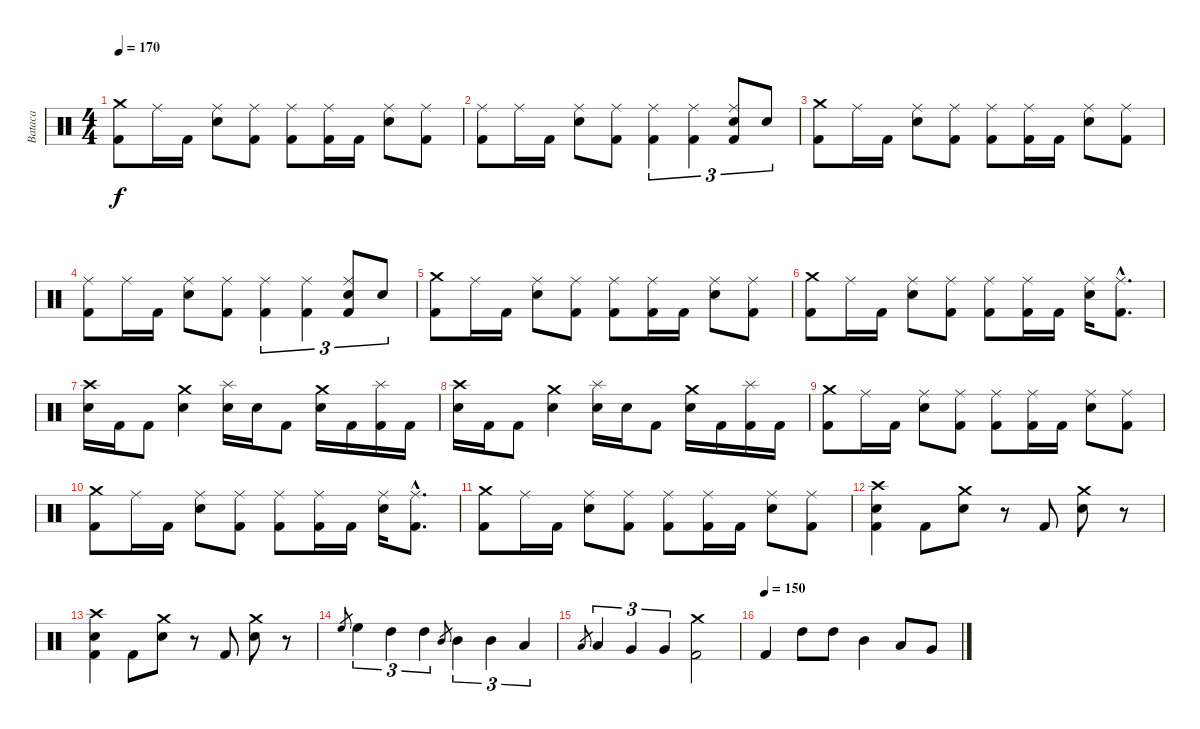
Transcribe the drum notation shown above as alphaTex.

\track ("Bataca" "Bataca") {instrument percussion}
\staff {score}
\articulation defaults
\ts (4 4)
\tempo 170
\clef neutral
\ks c
("Crash medium (hit)" "Kick (hit) 2").8{dy f} "Ride (middle)".16 "Kick (hit) 2".16 ("Ride (middle)" "Electric Snare (hit)").8 ("Ride (middle)" "Kick (hit) 2").8 ("Ride (middle)" "Kick (hit) 2").8 ("Ride (middle)" "Kick (hit) 2").16 "Kick (hit) 2".16 ("Ride (middle)" "Electric Snare (hit)").8 ("Ride (middle)" "Kick (hit) 2").8 |
("Ride (middle)" "Kick (hit) 2").8 "Ride (middle)".16 "Kick (hit) 2".16 ("Ride (middle)" "Electric Snare (hit)").8 ("Ride (middle)" "Kick (hit) 2").8 ("Ride (middle)" "Kick (hit) 2").4{tu (3 2)} ("Ride (middle)" "Kick (hit) 2").4{tu (3 2)} ("Ride (middle)" "Electric Snare (hit)" "Kick (hit) 2").8{tu (3 2)} "Electric Snare (hit)".8{tu (3 2)} |
("Crash medium (hit)" "Kick (hit) 2").8 "Ride (middle)".16 "Kick (hit) 2".16 ("Ride (middle)" "Electric Snare (hit)").8 ("Ride (middle)" "Kick (hit) 2").8 ("Ride (middle)" "Kick (hit) 2").8 ("Ride (middle)" "Kick (hit) 2").16 "Kick (hit) 2".16 ("Ride (middle)" "Electric Snare (hit)").8 ("Ride (middle)" "Kick (hit) 2").8 |
("Ride (middle)" "Kick (hit) 2").8 "Ride (middle)".16 "Kick (hit) 2".16 ("Ride (middle)" "Electric Snare (hit)").8 ("Ride (middle)" "Kick (hit) 2").8 ("Ride (middle)" "Kick (hit) 2").4{tu (3 2)} ("Ride (middle)" "Kick (hit) 2").4{tu (3 2)} ("Ride (middle)" "Electric Snare (hit)" "Kick (hit) 2").8{tu (3 2)} "Electric Snare (hit)".8{tu (3 2)} |
("Crash medium (hit)" "Kick (hit) 2").8 "Ride (middle)".16 "Kick (hit) 2".16 ("Ride (middle)" "Electric Snare (hit)").8 ("Ride (middle)" "Kick (hit) 2").8 ("Ride (middle)" "Kick (hit) 2").8 ("Ride (middle)" "Kick (hit) 2").16 "Kick (hit) 2".16 ("Ride (middle)" "Electric Snare (hit)").8 ("Ride (middle)" "Kick (hit) 2").8 |
("Crash medium (hit)" "Kick (hit) 2").8 "Ride (middle)".16 "Kick (hit) 2".16 ("Ride (middle)" "Electric Snare (hit)").8 ("Ride (middle)" "Kick (hit) 2").8 ("Ride (middle)" "Kick (hit) 2").8 ("Ride (middle)" "Kick (hit) 2").16 "Kick (hit) 2".16 ("Ride (middle)" "Electric Snare (hit)").16 ("Ride (middle)"{hac} "Kick (hit) 2"{hac}).8{d} |
("Crash high (hit)" "Electric Snare (hit)").16 "Kick (hit) 2".16 "Kick (hit) 2".8 ("Crash medium (hit)" "Electric Snare (hit)").4 ("Splash (hit)" "Electric Snare (hit)").16 "Electric Snare (hit)".16 "Kick (hit) 2".8 ("Crash medium (hit)" "Electric Snare (hit)").16 "Kick (hit) 2".16 ("Splash (hit)" "Kick (hit) 2").16 "Kick (hit) 2".16 |
("Crash high (hit)" "Electric Snare (hit)").16 "Kick (hit) 2".16 "Kick (hit) 2".8 ("Crash medium (hit)" "Electric Snare (hit)").4 ("Splash (hit)" "Electric Snare (hit)").16 "Electric Snare (hit)".16 "Kick (hit) 2".8 ("Crash medium (hit)" "Electric Snare (hit)").16 "Kick (hit) 2".16 ("Splash (hit)" "Kick (hit) 2").16 "Kick (hit) 2".16 |
("Crash medium (hit)" "Kick (hit) 2").8 "Ride (middle)".16 "Kick (hit) 2".16 ("Ride (middle)" "Electric Snare (hit)").8 ("Ride (middle)" "Kick (hit) 2").8 ("Ride (middle)" "Kick (hit) 2").8 ("Ride (middle)" "Kick (hit) 2").16 "Kick (hit) 2".16 ("Ride (middle)" "Electric Snare (hit)").8 ("Ride (middle)" "Kick (hit) 2").8 |
("Crash medium (hit)" "Kick (hit) 2").8 "Ride (middle)".16 "Kick (hit) 2".16 ("Ride (middle)" "Electric Snare (hit)").8 ("Ride (middle)" "Kick (hit) 2").8 ("Ride (middle)" "Kick (hit) 2").8 ("Ride (middle)" "Kick (hit) 2").16 "Kick (hit) 2".16 ("Ride (middle)" "Electric Snare (hit)").16 ("Ride (middle)"{hac} "Kick (hit) 2"{hac}).8{d} |
("Crash medium (hit)" "Kick (hit) 2").8 "Ride (middle)".16 "Kick (hit) 2".16 ("Ride (middle)" "Electric Snare (hit)").8 ("Ride (middle)" "Kick (hit) 2").8 ("Ride (middle)" "Kick (hit) 2").8 ("Ride (middle)" "Kick (hit) 2").16 "Kick (hit) 2".16 ("Ride (middle)" "Electric Snare (hit)").8 ("Ride (middle)" "Kick (hit) 2").8 |
("Crash high (hit)" "Electric Snare (hit)" "Kick (hit) 2").4 "Kick (hit) 2".8 ("Crash medium (hit)" "Electric Snare (hit)").8 r.8 "Kick (hit) 2".8 ("Crash medium (hit)" "Electric Snare (hit)").8 r.8 |
("Crash high (hit)" "Electric Snare (hit)" "Kick (hit) 2").4 "Kick (hit) 2".8 ("Crash medium (hit)" "Electric Snare (hit)").8 r.8 "Kick (hit) 2".8 ("Crash medium (hit)" "Electric Snare (hit)").8 r.8 |
"High Floor Tom (hit)".8{gr} "High Floor Tom (hit)".4{tu (3 2)} "High Tom (hit)".4{tu (3 2)} "High Tom (hit)".4{tu (3 2)} "Mid Tom (hit)".8{gr} "Mid Tom (hit)".4{tu (3 2)} "Mid Tom (hit)".4{tu (3 2)} "Low Tom (hit)".4{tu (3 2)} |
"Low Tom (hit)".8{gr} "Low Tom (hit)".4{tu (3 2)} "Very Low Tom (hit)".4{tu (3 2)} "Very Low Tom (hit)".4{tu (3 2)} ("Crash medium (hit)" "Kick (hit) 2").2 |
\tempo (150)
"Kick (hit) 2".4 "High Tom (hit)".8 "High Tom (hit)".8 "Mid Tom (hit)".4 "Low Tom (hit)".8 "Very Low Tom (hit)".8
